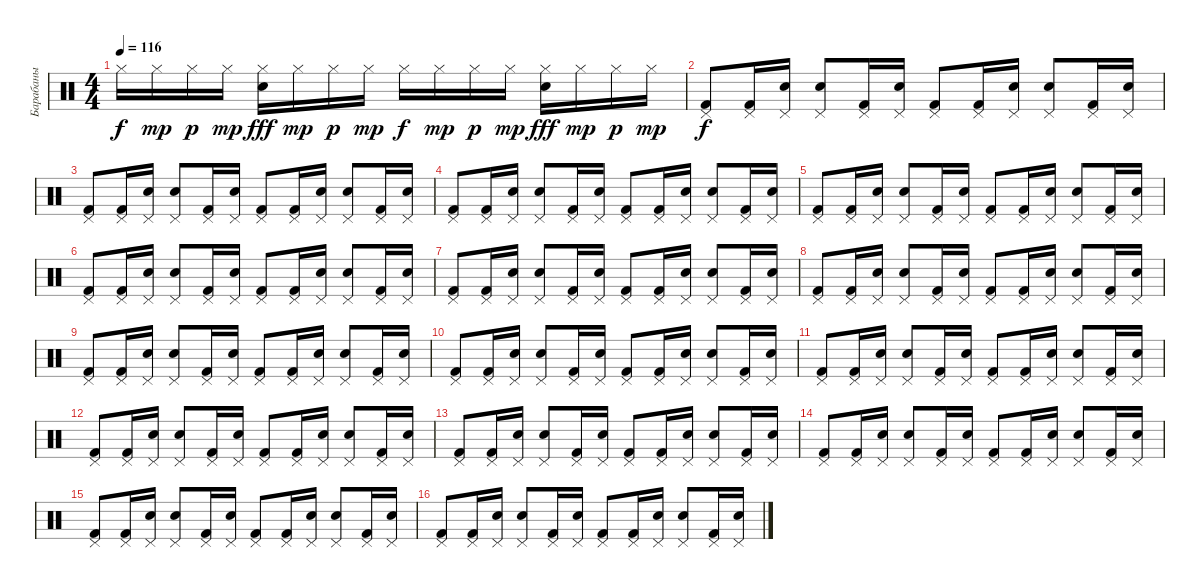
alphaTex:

\track ("Барабаны" "Барабаны") {instrument percussion}
\staff {score}
\articulation defaults
\ts (4 4)
\tempo 116
\clef neutral
\ks c "Hi-Hat (closed)".16{dy f} "Hi-Hat (closed)".16{dy mp} "Hi-Hat (closed)".16{dy p} "Hi-Hat (closed)".16{dy mp}
("Hi-Hat (closed)" "Electric Snare (hit)").16{dy fff} "Hi-Hat (closed)".16{dy mp} "Hi-Hat (closed)".16{dy p} "Hi-Hat (closed)".16{dy mp} "Hi-Hat (closed)".16{dy f} "Hi-Hat (closed)".16{dy mp} "Hi-Hat (closed)".16{dy p} "Hi-Hat (closed)".16{dy mp} ("Hi-Hat (closed)" "Electric Snare (hit)").16{dy fff} "Hi-Hat (closed)".16{dy mp} "Hi-Hat (closed)".16{dy p} "Hi-Hat (closed)".16{dy mp} |
("Kick (hit) 2" "Pedal Hi-Hat (hit)").8{dy f} ("Kick (hit) 2" "Pedal Hi-Hat (hit)").16 ("Snare (hit) 2" "Pedal Hi-Hat (hit)").16 ("Snare (hit) 2" "Pedal Hi-Hat (hit)").8 ("Kick (hit) 2" "Pedal Hi-Hat (hit)").16 ("Snare (hit) 2" "Pedal Hi-Hat (hit)").16 ("Kick (hit) 2" "Pedal Hi-Hat (hit)").8 ("Kick (hit) 2" "Pedal Hi-Hat (hit)").16 ("Snare (hit) 2" "Pedal Hi-Hat (hit)").16 ("Snare (hit) 2" "Pedal Hi-Hat (hit)").8 ("Kick (hit) 2" "Pedal Hi-Hat (hit)").16 ("Snare (hit) 2" "Pedal Hi-Hat (hit)").16 |
("Kick (hit) 2" "Pedal Hi-Hat (hit)").8 ("Kick (hit) 2" "Pedal Hi-Hat (hit)").16 ("Snare (hit) 2" "Pedal Hi-Hat (hit)").16 ("Snare (hit) 2" "Pedal Hi-Hat (hit)").8 ("Kick (hit) 2" "Pedal Hi-Hat (hit)").16 ("Snare (hit) 2" "Pedal Hi-Hat (hit)").16 ("Kick (hit) 2" "Pedal Hi-Hat (hit)").8 ("Kick (hit) 2" "Pedal Hi-Hat (hit)").16 ("Snare (hit) 2" "Pedal Hi-Hat (hit)").16 ("Snare (hit) 2" "Pedal Hi-Hat (hit)").8 ("Kick (hit) 2" "Pedal Hi-Hat (hit)").16 ("Snare (hit) 2" "Pedal Hi-Hat (hit)").16 |
("Kick (hit) 2" "Pedal Hi-Hat (hit)").8 ("Kick (hit) 2" "Pedal Hi-Hat (hit)").16 ("Snare (hit) 2" "Pedal Hi-Hat (hit)").16 ("Snare (hit) 2" "Pedal Hi-Hat (hit)").8 ("Kick (hit) 2" "Pedal Hi-Hat (hit)").16 ("Snare (hit) 2" "Pedal Hi-Hat (hit)").16 ("Kick (hit) 2" "Pedal Hi-Hat (hit)").8 ("Kick (hit) 2" "Pedal Hi-Hat (hit)").16 ("Snare (hit) 2" "Pedal Hi-Hat (hit)").16 ("Snare (hit) 2" "Pedal Hi-Hat (hit)").8 ("Kick (hit) 2" "Pedal Hi-Hat (hit)").16 ("Snare (hit) 2" "Pedal Hi-Hat (hit)").16 |
("Kick (hit) 2" "Pedal Hi-Hat (hit)").8 ("Kick (hit) 2" "Pedal Hi-Hat (hit)").16 ("Snare (hit) 2" "Pedal Hi-Hat (hit)").16 ("Snare (hit) 2" "Pedal Hi-Hat (hit)").8 ("Kick (hit) 2" "Pedal Hi-Hat (hit)").16 ("Snare (hit) 2" "Pedal Hi-Hat (hit)").16 ("Kick (hit) 2" "Pedal Hi-Hat (hit)").8 ("Kick (hit) 2" "Pedal Hi-Hat (hit)").16 ("Snare (hit) 2" "Pedal Hi-Hat (hit)").16 ("Snare (hit) 2" "Pedal Hi-Hat (hit)").8 ("Kick (hit) 2" "Pedal Hi-Hat (hit)").16 ("Snare (hit) 2" "Pedal Hi-Hat (hit)").16 |
("Kick (hit) 2" "Pedal Hi-Hat (hit)").8 ("Kick (hit) 2" "Pedal Hi-Hat (hit)").16 ("Snare (hit) 2" "Pedal Hi-Hat (hit)").16 ("Snare (hit) 2" "Pedal Hi-Hat (hit)").8 ("Kick (hit) 2" "Pedal Hi-Hat (hit)").16 ("Snare (hit) 2" "Pedal Hi-Hat (hit)").16 ("Kick (hit) 2" "Pedal Hi-Hat (hit)").8 ("Kick (hit) 2" "Pedal Hi-Hat (hit)").16 ("Snare (hit) 2" "Pedal Hi-Hat (hit)").16 ("Snare (hit) 2" "Pedal Hi-Hat (hit)").8 ("Kick (hit) 2" "Pedal Hi-Hat (hit)").16 ("Snare (hit) 2" "Pedal Hi-Hat (hit)").16 |
("Kick (hit) 2" "Pedal Hi-Hat (hit)").8 ("Kick (hit) 2" "Pedal Hi-Hat (hit)").16 ("Snare (hit) 2" "Pedal Hi-Hat (hit)").16 ("Snare (hit) 2" "Pedal Hi-Hat (hit)").8 ("Kick (hit) 2" "Pedal Hi-Hat (hit)").16 ("Snare (hit) 2" "Pedal Hi-Hat (hit)").16 ("Kick (hit) 2" "Pedal Hi-Hat (hit)").8 ("Kick (hit) 2" "Pedal Hi-Hat (hit)").16 ("Snare (hit) 2" "Pedal Hi-Hat (hit)").16 ("Snare (hit) 2" "Pedal Hi-Hat (hit)").8 ("Kick (hit) 2" "Pedal Hi-Hat (hit)").16 ("Snare (hit) 2" "Pedal Hi-Hat (hit)").16 |
("Kick (hit) 2" "Pedal Hi-Hat (hit)").8 ("Kick (hit) 2" "Pedal Hi-Hat (hit)").16 ("Snare (hit) 2" "Pedal Hi-Hat (hit)").16 ("Snare (hit) 2" "Pedal Hi-Hat (hit)").8 ("Kick (hit) 2" "Pedal Hi-Hat (hit)").16 ("Snare (hit) 2" "Pedal Hi-Hat (hit)").16 ("Kick (hit) 2" "Pedal Hi-Hat (hit)").8 ("Kick (hit) 2" "Pedal Hi-Hat (hit)").16 ("Snare (hit) 2" "Pedal Hi-Hat (hit)").16 ("Snare (hit) 2" "Pedal Hi-Hat (hit)").8 ("Kick (hit) 2" "Pedal Hi-Hat (hit)").16 ("Snare (hit) 2" "Pedal Hi-Hat (hit)").16 |
("Kick (hit) 2" "Pedal Hi-Hat (hit)").8 ("Kick (hit) 2" "Pedal Hi-Hat (hit)").16 ("Snare (hit) 2" "Pedal Hi-Hat (hit)").16 ("Snare (hit) 2" "Pedal Hi-Hat (hit)").8 ("Kick (hit) 2" "Pedal Hi-Hat (hit)").16 ("Snare (hit) 2" "Pedal Hi-Hat (hit)").16 ("Kick (hit) 2" "Pedal Hi-Hat (hit)").8 ("Kick (hit) 2" "Pedal Hi-Hat (hit)").16 ("Snare (hit) 2" "Pedal Hi-Hat (hit)").16 ("Snare (hit) 2" "Pedal Hi-Hat (hit)").8 ("Kick (hit) 2" "Pedal Hi-Hat (hit)").16 ("Snare (hit) 2" "Pedal Hi-Hat (hit)").16 |
("Kick (hit) 2" "Pedal Hi-Hat (hit)").8 ("Kick (hit) 2" "Pedal Hi-Hat (hit)").16 ("Snare (hit) 2" "Pedal Hi-Hat (hit)").16 ("Snare (hit) 2" "Pedal Hi-Hat (hit)").8 ("Kick (hit) 2" "Pedal Hi-Hat (hit)").16 ("Snare (hit) 2" "Pedal Hi-Hat (hit)").16 ("Kick (hit) 2" "Pedal Hi-Hat (hit)").8 ("Kick (hit) 2" "Pedal Hi-Hat (hit)").16 ("Snare (hit) 2" "Pedal Hi-Hat (hit)").16 ("Snare (hit) 2" "Pedal Hi-Hat (hit)").8 ("Kick (hit) 2" "Pedal Hi-Hat (hit)").16 ("Snare (hit) 2" "Pedal Hi-Hat (hit)").16 |
("Kick (hit) 2" "Pedal Hi-Hat (hit)").8 ("Kick (hit) 2" "Pedal Hi-Hat (hit)").16 ("Snare (hit) 2" "Pedal Hi-Hat (hit)").16 ("Snare (hit) 2" "Pedal Hi-Hat (hit)").8 ("Kick (hit) 2" "Pedal Hi-Hat (hit)").16 ("Snare (hit) 2" "Pedal Hi-Hat (hit)").16 ("Kick (hit) 2" "Pedal Hi-Hat (hit)").8 ("Kick (hit) 2" "Pedal Hi-Hat (hit)").16 ("Snare (hit) 2" "Pedal Hi-Hat (hit)").16 ("Snare (hit) 2" "Pedal Hi-Hat (hit)").8 ("Kick (hit) 2" "Pedal Hi-Hat (hit)").16 ("Snare (hit) 2" "Pedal Hi-Hat (hit)").16 |
("Kick (hit) 2" "Pedal Hi-Hat (hit)").8 ("Kick (hit) 2" "Pedal Hi-Hat (hit)").16 ("Snare (hit) 2" "Pedal Hi-Hat (hit)").16 ("Snare (hit) 2" "Pedal Hi-Hat (hit)").8 ("Kick (hit) 2" "Pedal Hi-Hat (hit)").16 ("Snare (hit) 2" "Pedal Hi-Hat (hit)").16 ("Kick (hit) 2" "Pedal Hi-Hat (hit)").8 ("Kick (hit) 2" "Pedal Hi-Hat (hit)").16 ("Snare (hit) 2" "Pedal Hi-Hat (hit)").16 ("Snare (hit) 2" "Pedal Hi-Hat (hit)").8 ("Kick (hit) 2" "Pedal Hi-Hat (hit)").16 ("Snare (hit) 2" "Pedal Hi-Hat (hit)").16 |
("Kick (hit) 2" "Pedal Hi-Hat (hit)").8 ("Kick (hit) 2" "Pedal Hi-Hat (hit)").16 ("Snare (hit) 2" "Pedal Hi-Hat (hit)").16 ("Snare (hit) 2" "Pedal Hi-Hat (hit)").8 ("Kick (hit) 2" "Pedal Hi-Hat (hit)").16 ("Snare (hit) 2" "Pedal Hi-Hat (hit)").16 ("Kick (hit) 2" "Pedal Hi-Hat (hit)").8 ("Kick (hit) 2" "Pedal Hi-Hat (hit)").16 ("Snare (hit) 2" "Pedal Hi-Hat (hit)").16 ("Snare (hit) 2" "Pedal Hi-Hat (hit)").8 ("Kick (hit) 2" "Pedal Hi-Hat (hit)").16 ("Snare (hit) 2" "Pedal Hi-Hat (hit)").16 |
("Kick (hit) 2" "Pedal Hi-Hat (hit)").8 ("Kick (hit) 2" "Pedal Hi-Hat (hit)").16 ("Snare (hit) 2" "Pedal Hi-Hat (hit)").16 ("Snare (hit) 2" "Pedal Hi-Hat (hit)").8 ("Kick (hit) 2" "Pedal Hi-Hat (hit)").16 ("Snare (hit) 2" "Pedal Hi-Hat (hit)").16 ("Kick (hit) 2" "Pedal Hi-Hat (hit)").8 ("Kick (hit) 2" "Pedal Hi-Hat (hit)").16 ("Snare (hit) 2" "Pedal Hi-Hat (hit)").16 ("Snare (hit) 2" "Pedal Hi-Hat (hit)").8 ("Kick (hit) 2" "Pedal Hi-Hat (hit)").16 ("Snare (hit) 2" "Pedal Hi-Hat (hit)").16 |
("Kick (hit) 2" "Pedal Hi-Hat (hit)").8 ("Kick (hit) 2" "Pedal Hi-Hat (hit)").16 ("Snare (hit) 2" "Pedal Hi-Hat (hit)").16 ("Snare (hit) 2" "Pedal Hi-Hat (hit)").8 ("Kick (hit) 2" "Pedal Hi-Hat (hit)").16 ("Snare (hit) 2" "Pedal Hi-Hat (hit)").16 ("Kick (hit) 2" "Pedal Hi-Hat (hit)").8 ("Kick (hit) 2" "Pedal Hi-Hat (hit)").16 ("Snare (hit) 2" "Pedal Hi-Hat (hit)").16 ("Snare (hit) 2" "Pedal Hi-Hat (hit)").8 ("Kick (hit) 2" "Pedal Hi-Hat (hit)").16 ("Snare (hit) 2" "Pedal Hi-Hat (hit)").16 |
("Kick (hit) 2" "Pedal Hi-Hat (hit)").8 ("Kick (hit) 2" "Pedal Hi-Hat (hit)").16 ("Snare (hit) 2" "Pedal Hi-Hat (hit)").16 ("Snare (hit) 2" "Pedal Hi-Hat (hit)").8 ("Kick (hit) 2" "Pedal Hi-Hat (hit)").16 ("Snare (hit) 2" "Pedal Hi-Hat (hit)").16 ("Kick (hit) 2" "Pedal Hi-Hat (hit)").8 ("Kick (hit) 2" "Pedal Hi-Hat (hit)").16 ("Snare (hit) 2" "Pedal Hi-Hat (hit)").16 ("Snare (hit) 2" "Pedal Hi-Hat (hit)").8 ("Kick (hit) 2" "Pedal Hi-Hat (hit)").16 ("Snare (hit) 2" "Pedal Hi-Hat (hit)").16
